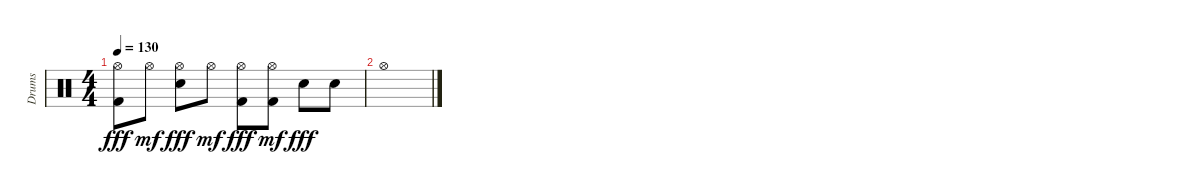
\track ("Drums" "Drums") {instrument percussion}
\staff {score}
\articulation defaults
\ts (4 4)
\tempo 130
\clef neutral
\ks c
("Kick (hit) 2" "Hi-Hat (open)").8{dy fff} "Hi-Hat (open)".8{dy mf} ("Snare (hit) 2" "Hi-Hat (open)").8{dy fff} "Hi-Hat (open)".8{dy mf} ("Kick (hit) 2" "Hi-Hat (open)").8{dy fff} ("Kick (hit) 2" "Hi-Hat (open)").8{dy mf} "Snare (hit) 2".8{dy fff} "Snare (hit) 2".8 |
"Hi-Hat (open)".1
